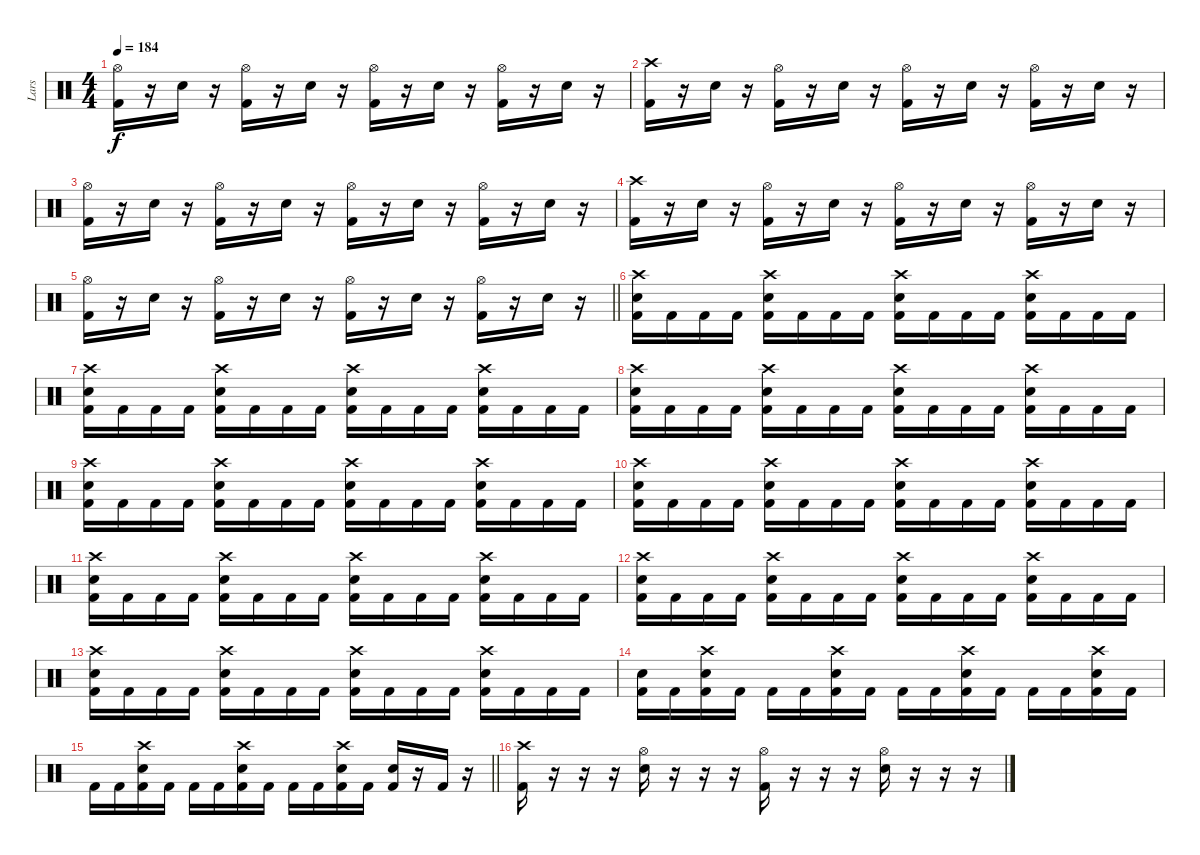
\track ("Lars" "Lars") {instrument percussion}
\staff {score}
\articulation defaults
\ts (4 4)
\tempo 184
\clef neutral
\ks c
("Hi-Hat (open)" "Kick (hit) 2").16{dy f} r.16 "Electric Snare (hit)".16 r.16 ("Hi-Hat (open)" "Kick (hit) 2").16 r.16 "Electric Snare (hit)".16 r.16 ("Hi-Hat (open)" "Kick (hit) 2").16 r.16 "Electric Snare (hit)".16 r.16 ("Hi-Hat (open)" "Kick (hit) 2").16 r.16 "Electric Snare (hit)".16 r.16 |
("Crash high (hit)" "Kick (hit) 2").16 r.16 "Electric Snare (hit)".16 r.16 ("Hi-Hat (open)" "Kick (hit) 2").16 r.16 "Electric Snare (hit)".16 r.16 ("Hi-Hat (open)" "Kick (hit) 2").16 r.16 "Electric Snare (hit)".16 r.16 ("Hi-Hat (open)" "Kick (hit) 2").16 r.16 "Electric Snare (hit)".16 r.16 |
("Hi-Hat (open)" "Kick (hit) 2").16 r.16 "Electric Snare (hit)".16 r.16 ("Hi-Hat (open)" "Kick (hit) 2").16 r.16 "Electric Snare (hit)".16 r.16 ("Hi-Hat (open)" "Kick (hit) 2").16 r.16 "Electric Snare (hit)".16 r.16 ("Hi-Hat (open)" "Kick (hit) 2").16 r.16 "Electric Snare (hit)".16 r.16 |
("Crash high (hit)" "Kick (hit) 2").16 r.16 "Electric Snare (hit)".16 r.16 ("Hi-Hat (open)" "Kick (hit) 2").16 r.16 "Electric Snare (hit)".16 r.16 ("Hi-Hat (open)" "Kick (hit) 2").16 r.16 "Electric Snare (hit)".16 r.16 ("Hi-Hat (open)" "Kick (hit) 2").16 r.16 "Electric Snare (hit)".16 r.16 |
\barLineRight lightlight
("Hi-Hat (open)" "Kick (hit) 2").16 r.16 "Electric Snare (hit)".16 r.16 ("Hi-Hat (open)" "Kick (hit) 2").16 r.16 "Electric Snare (hit)".16 r.16 ("Hi-Hat (open)" "Kick (hit) 2").16 r.16 "Electric Snare (hit)".16 r.16 ("Hi-Hat (open)" "Kick (hit) 2").16 r.16 "Electric Snare (hit)".16 r.16 |
("Crash high (hit)" "Electric Snare (hit)" "Kick (hit) 2").16 "Kick (hit) 2".16 "Kick (hit) 2".16 "Kick (hit) 2".16 ("Crash high (hit)" "Electric Snare (hit)" "Kick (hit) 2").16 "Kick (hit) 2".16 "Kick (hit) 2".16 "Kick (hit) 2".16 ("Crash high (hit)" "Electric Snare (hit)" "Kick (hit) 2").16 "Kick (hit) 2".16 "Kick (hit) 2".16 "Kick (hit) 2".16 ("Crash high (hit)" "Electric Snare (hit)" "Kick (hit) 2").16 "Kick (hit) 2".16 "Kick (hit) 2".16 "Kick (hit) 2".16 |
("Crash high (hit)" "Electric Snare (hit)" "Kick (hit) 2").16 "Kick (hit) 2".16 "Kick (hit) 2".16 "Kick (hit) 2".16 ("Crash high (hit)" "Electric Snare (hit)" "Kick (hit) 2").16 "Kick (hit) 2".16 "Kick (hit) 2".16 "Kick (hit) 2".16 ("Crash high (hit)" "Electric Snare (hit)" "Kick (hit) 2").16 "Kick (hit) 2".16 "Kick (hit) 2".16 "Kick (hit) 2".16 ("Crash high (hit)" "Electric Snare (hit)" "Kick (hit) 2").16 "Kick (hit) 2".16 "Kick (hit) 2".16 "Kick (hit) 2".16 |
("Crash high (hit)" "Electric Snare (hit)" "Kick (hit) 2").16 "Kick (hit) 2".16 "Kick (hit) 2".16 "Kick (hit) 2".16 ("Crash high (hit)" "Electric Snare (hit)" "Kick (hit) 2").16 "Kick (hit) 2".16 "Kick (hit) 2".16 "Kick (hit) 2".16 ("Crash high (hit)" "Electric Snare (hit)" "Kick (hit) 2").16 "Kick (hit) 2".16 "Kick (hit) 2".16 "Kick (hit) 2".16 ("Crash high (hit)" "Electric Snare (hit)" "Kick (hit) 2").16 "Kick (hit) 2".16 "Kick (hit) 2".16 "Kick (hit) 2".16 |
("Crash high (hit)" "Electric Snare (hit)" "Kick (hit) 2").16 "Kick (hit) 2".16 "Kick (hit) 2".16 "Kick (hit) 2".16 ("Crash high (hit)" "Electric Snare (hit)" "Kick (hit) 2").16 "Kick (hit) 2".16 "Kick (hit) 2".16 "Kick (hit) 2".16 ("Crash high (hit)" "Electric Snare (hit)" "Kick (hit) 2").16 "Kick (hit) 2".16 "Kick (hit) 2".16 "Kick (hit) 2".16 ("Crash high (hit)" "Electric Snare (hit)" "Kick (hit) 2").16 "Kick (hit) 2".16 "Kick (hit) 2".16 "Kick (hit) 2".16 |
("Crash high (hit)" "Electric Snare (hit)" "Kick (hit) 2").16 "Kick (hit) 2".16 "Kick (hit) 2".16 "Kick (hit) 2".16 ("Crash high (hit)" "Electric Snare (hit)" "Kick (hit) 2").16 "Kick (hit) 2".16 "Kick (hit) 2".16 "Kick (hit) 2".16 ("Crash high (hit)" "Electric Snare (hit)" "Kick (hit) 2").16 "Kick (hit) 2".16 "Kick (hit) 2".16 "Kick (hit) 2".16 ("Crash high (hit)" "Electric Snare (hit)" "Kick (hit) 2").16 "Kick (hit) 2".16 "Kick (hit) 2".16 "Kick (hit) 2".16 |
("Crash high (hit)" "Electric Snare (hit)" "Kick (hit) 2").16 "Kick (hit) 2".16 "Kick (hit) 2".16 "Kick (hit) 2".16 ("Crash high (hit)" "Electric Snare (hit)" "Kick (hit) 2").16 "Kick (hit) 2".16 "Kick (hit) 2".16 "Kick (hit) 2".16 ("Crash high (hit)" "Electric Snare (hit)" "Kick (hit) 2").16 "Kick (hit) 2".16 "Kick (hit) 2".16 "Kick (hit) 2".16 ("Crash high (hit)" "Electric Snare (hit)" "Kick (hit) 2").16 "Kick (hit) 2".16 "Kick (hit) 2".16 "Kick (hit) 2".16 |
("Crash high (hit)" "Electric Snare (hit)" "Kick (hit) 2").16 "Kick (hit) 2".16 "Kick (hit) 2".16 "Kick (hit) 2".16 ("Crash high (hit)" "Electric Snare (hit)" "Kick (hit) 2").16 "Kick (hit) 2".16 "Kick (hit) 2".16 "Kick (hit) 2".16 ("Crash high (hit)" "Electric Snare (hit)" "Kick (hit) 2").16 "Kick (hit) 2".16 "Kick (hit) 2".16 "Kick (hit) 2".16 ("Crash high (hit)" "Electric Snare (hit)" "Kick (hit) 2").16 "Kick (hit) 2".16 "Kick (hit) 2".16 "Kick (hit) 2".16 |
("Crash high (hit)" "Electric Snare (hit)" "Kick (hit) 2").16 "Kick (hit) 2".16 "Kick (hit) 2".16 "Kick (hit) 2".16 ("Crash high (hit)" "Electric Snare (hit)" "Kick (hit) 2").16 "Kick (hit) 2".16 "Kick (hit) 2".16 "Kick (hit) 2".16 ("Crash high (hit)" "Electric Snare (hit)" "Kick (hit) 2").16 "Kick (hit) 2".16 "Kick (hit) 2".16 "Kick (hit) 2".16 ("Crash high (hit)" "Electric Snare (hit)" "Kick (hit) 2").16 "Kick (hit) 2".16 "Kick (hit) 2".16 "Kick (hit) 2".16 |
("Electric Snare (hit)" "Kick (hit) 2").16 "Kick (hit) 2".16 ("Crash high (hit)" "Electric Snare (hit)" "Kick (hit) 2").16 "Kick (hit) 2".16 "Kick (hit) 2".16 "Kick (hit) 2".16 ("Crash high (hit)" "Electric Snare (hit)" "Kick (hit) 2").16 "Kick (hit) 2".16 "Kick (hit) 2".16 "Kick (hit) 2".16 ("Crash high (hit)" "Electric Snare (hit)" "Kick (hit) 2").16 "Kick (hit) 2".16 "Kick (hit) 2".16 "Kick (hit) 2".16 ("Crash high (hit)" "Electric Snare (hit)" "Kick (hit) 2").16 "Kick (hit) 2".16 |
\barLineRight lightlight "Kick (hit) 2".16 "Kick (hit) 2".16
("Crash high (hit)" "Electric Snare (hit)" "Kick (hit) 2").16 "Kick (hit) 2".16 "Kick (hit) 2".16 "Kick (hit) 2".16 ("Crash high (hit)" "Electric Snare (hit)" "Kick (hit) 2").16 "Kick (hit) 2".16 "Kick (hit) 2".16 "Kick (hit) 2".16 ("Crash high (hit)" "Electric Snare (hit)" "Kick (hit) 2").16 "Kick (hit) 2".16 ("Electric Snare (hit)" "Kick (hit) 2").16 r.16 "Kick (hit) 2".16 r.16 |
("Crash high (hit)" "Kick (hit) 2").16 r.16 r.16 r.16 ("Electric Snare (hit)" "Hi-Hat (open)").16 r.16 r.16 r.16 ("Hi-Hat (open)" "Kick (hit) 2").16 r.16 r.16 r.16 ("Electric Snare (hit)" "Hi-Hat (open)").16 r.16 r.16 r.16
